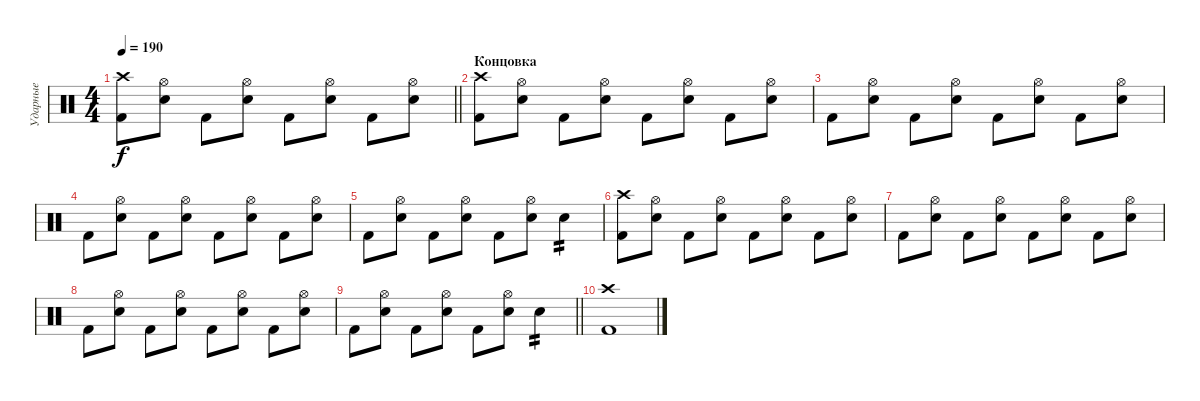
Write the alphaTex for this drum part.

\track ("Ударные" "Ударные") {instrument percussion}
\staff {score}
\articulation defaults
\ts (4 4)
\tempo 190
\clef neutral
\barLineRight lightlight
\ks c
("Crash high (hit)" "Kick (hit) 2").8{dy f} ("Hi-Hat (open)" "Electric Snare (hit)").8 "Kick (hit) 2".8 ("Hi-Hat (open)" "Electric Snare (hit)").8 "Kick (hit) 2".8 ("Hi-Hat (open)" "Electric Snare (hit)").8 "Kick (hit) 2".8 ("Hi-Hat (open)" "Electric Snare (hit)").8 |
\section ("" "Концовка")
("Crash high (hit)" "Kick (hit) 2").8 ("Hi-Hat (open)" "Electric Snare (hit)").8 "Kick (hit) 2".8 ("Hi-Hat (open)" "Electric Snare (hit)").8 "Kick (hit) 2".8 ("Hi-Hat (open)" "Electric Snare (hit)").8 "Kick (hit) 2".8 ("Hi-Hat (open)" "Electric Snare (hit)").8 |
"Kick (hit) 2".8 ("Hi-Hat (open)" "Electric Snare (hit)").8 "Kick (hit) 2".8 ("Hi-Hat (open)" "Electric Snare (hit)").8 "Kick (hit) 2".8 ("Hi-Hat (open)" "Electric Snare (hit)").8 "Kick (hit) 2".8 ("Hi-Hat (open)" "Electric Snare (hit)").8 |
"Kick (hit) 2".8 ("Hi-Hat (open)" "Electric Snare (hit)").8 "Kick (hit) 2".8 ("Hi-Hat (open)" "Electric Snare (hit)").8 "Kick (hit) 2".8 ("Hi-Hat (open)" "Electric Snare (hit)").8 "Kick (hit) 2".8 ("Hi-Hat (open)" "Electric Snare (hit)").8 |
"Kick (hit) 2".8 ("Hi-Hat (open)" "Electric Snare (hit)").8 "Kick (hit) 2".8 ("Hi-Hat (open)" "Electric Snare (hit)").8 "Kick (hit) 2".8 ("Hi-Hat (open)" "Electric Snare (hit)").8 "Electric Snare (hit)".4{tp 2} |
("Crash high (hit)" "Kick (hit) 2").8 ("Hi-Hat (open)" "Electric Snare (hit)").8 "Kick (hit) 2".8 ("Hi-Hat (open)" "Electric Snare (hit)").8 "Kick (hit) 2".8 ("Hi-Hat (open)" "Electric Snare (hit)").8 "Kick (hit) 2".8 ("Hi-Hat (open)" "Electric Snare (hit)").8 |
"Kick (hit) 2".8 ("Hi-Hat (open)" "Electric Snare (hit)").8 "Kick (hit) 2".8 ("Hi-Hat (open)" "Electric Snare (hit)").8 "Kick (hit) 2".8 ("Hi-Hat (open)" "Electric Snare (hit)").8 "Kick (hit) 2".8 ("Hi-Hat (open)" "Electric Snare (hit)").8 |
"Kick (hit) 2".8 ("Hi-Hat (open)" "Electric Snare (hit)").8 "Kick (hit) 2".8 ("Hi-Hat (open)" "Electric Snare (hit)").8 "Kick (hit) 2".8 ("Hi-Hat (open)" "Electric Snare (hit)").8 "Kick (hit) 2".8 ("Hi-Hat (open)" "Electric Snare (hit)").8 |
\barLineRight lightlight "Kick (hit) 2".8
("Hi-Hat (open)" "Electric Snare (hit)").8 "Kick (hit) 2".8 ("Hi-Hat (open)" "Electric Snare (hit)").8 "Kick (hit) 2".8 ("Hi-Hat (open)" "Electric Snare (hit)").8 "Electric Snare (hit)".4{tp 2} |
("Crash high (hit)" "Kick (hit) 2").1
